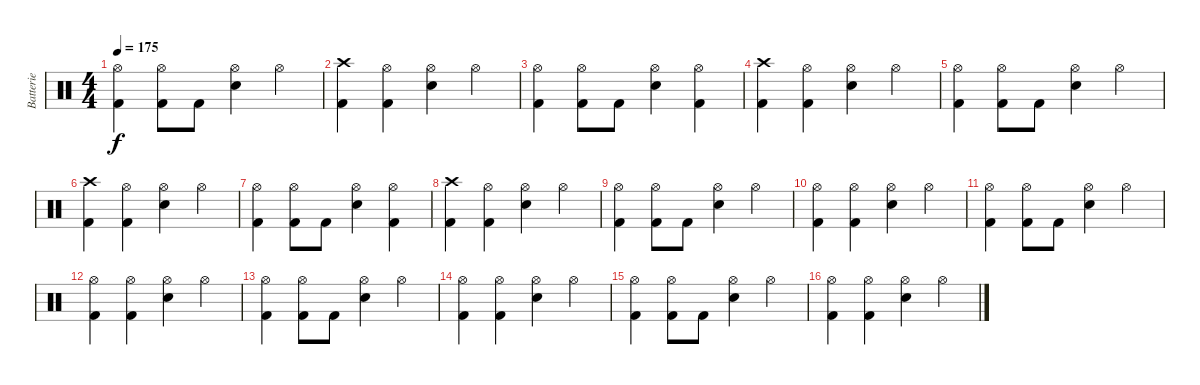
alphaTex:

\track ("Batterie" "Batterie") {instrument percussion}
\staff {score}
\articulation defaults
\ts (4 4)
\tempo 175
\clef neutral
\ks c
("Hi-Hat (open)" "Kick (hit) 2").4{dy f} ("Hi-Hat (open)" "Kick (hit) 2").8 "Kick (hit) 2".8 ("Hi-Hat (open)" "Electric Snare (hit)").4 "Hi-Hat (open)".4 |
("Crash high (hit)" "Kick (hit) 2").4 ("Hi-Hat (open)" "Kick (hit) 2").4 ("Hi-Hat (open)" "Electric Snare (hit)").4 "Hi-Hat (open)".4 |
("Hi-Hat (open)" "Kick (hit) 2").4 ("Hi-Hat (open)" "Kick (hit) 2").8 "Kick (hit) 2".8 ("Hi-Hat (open)" "Electric Snare (hit)").4 ("Hi-Hat (open)" "Kick (hit) 2").4 |
("Crash high (hit)" "Kick (hit) 2").4 ("Hi-Hat (open)" "Kick (hit) 2").4 ("Hi-Hat (open)" "Electric Snare (hit)").4 "Hi-Hat (open)".4 |
("Hi-Hat (open)" "Kick (hit) 2").4 ("Hi-Hat (open)" "Kick (hit) 2").8 "Kick (hit) 2".8 ("Hi-Hat (open)" "Electric Snare (hit)").4 "Hi-Hat (open)".4 |
("Crash high (hit)" "Kick (hit) 2").4 ("Hi-Hat (open)" "Kick (hit) 2").4 ("Hi-Hat (open)" "Electric Snare (hit)").4 "Hi-Hat (open)".4 |
("Hi-Hat (open)" "Kick (hit) 2").4 ("Hi-Hat (open)" "Kick (hit) 2").8 "Kick (hit) 2".8 ("Hi-Hat (open)" "Electric Snare (hit)").4 ("Hi-Hat (open)" "Kick (hit) 2").4 |
("Crash high (hit)" "Kick (hit) 2").4 ("Hi-Hat (open)" "Kick (hit) 2").4 ("Hi-Hat (open)" "Electric Snare (hit)").4 "Hi-Hat (open)".4 |
("Hi-Hat (open)" "Kick (hit) 2").4 ("Hi-Hat (open)" "Kick (hit) 2").8 "Kick (hit) 2".8 ("Hi-Hat (open)" "Electric Snare (hit)").4 "Hi-Hat (open)".4 |
("Hi-Hat (open)" "Kick (hit) 2").4 ("Hi-Hat (open)" "Kick (hit) 2").4 ("Hi-Hat (open)" "Electric Snare (hit)").4 "Hi-Hat (open)".4 |
("Hi-Hat (open)" "Kick (hit) 2").4 ("Hi-Hat (open)" "Kick (hit) 2").8 "Kick (hit) 2".8 ("Hi-Hat (open)" "Electric Snare (hit)").4 "Hi-Hat (open)".4 |
("Hi-Hat (open)" "Kick (hit) 2").4 ("Hi-Hat (open)" "Kick (hit) 2").4 ("Hi-Hat (open)" "Electric Snare (hit)").4 "Hi-Hat (open)".4 |
("Hi-Hat (open)" "Kick (hit) 2").4 ("Hi-Hat (open)" "Kick (hit) 2").8 "Kick (hit) 2".8 ("Hi-Hat (open)" "Electric Snare (hit)").4 "Hi-Hat (open)".4 |
("Hi-Hat (open)" "Kick (hit) 2").4 ("Hi-Hat (open)" "Kick (hit) 2").4 ("Hi-Hat (open)" "Electric Snare (hit)").4 "Hi-Hat (open)".4 |
("Hi-Hat (open)" "Kick (hit) 2").4 ("Hi-Hat (open)" "Kick (hit) 2").8 "Kick (hit) 2".8 ("Hi-Hat (open)" "Electric Snare (hit)").4 "Hi-Hat (open)".4 |
("Hi-Hat (open)" "Kick (hit) 2").4 ("Hi-Hat (open)" "Kick (hit) 2").4 ("Hi-Hat (open)" "Electric Snare (hit)").4 "Hi-Hat (open)".4
